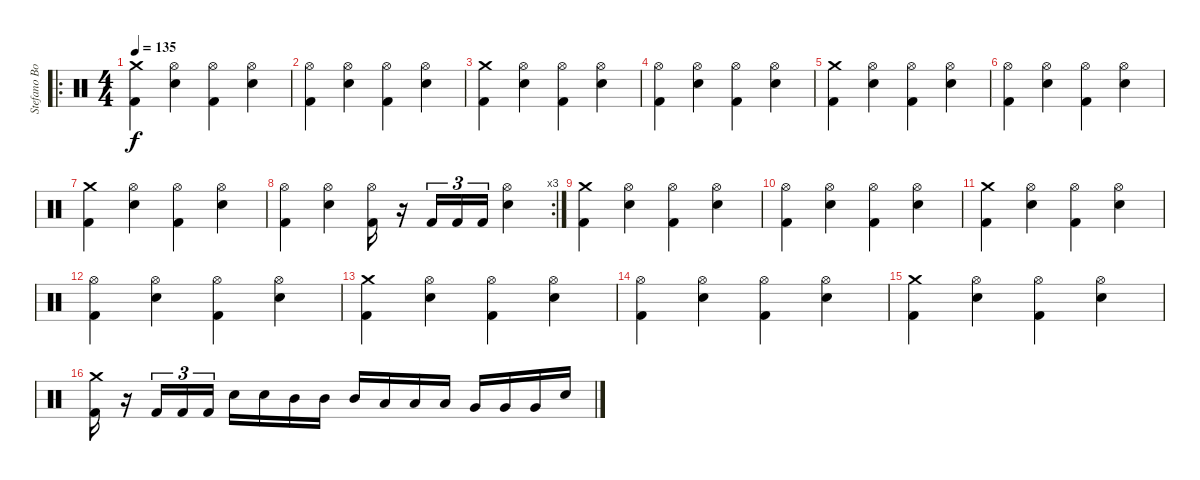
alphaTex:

\track ("Stefano Bonini" "Stefano Bo") {instrument percussion}
\staff {score}
\articulation defaults
\ro
\ts (4 4)
\tempo 135
\clef neutral
\ks c
("Crash medium (hit)" "Kick (hit) 2").4{dy f} ("Hi-Hat (open)" "Electric Snare (hit)").4 ("Hi-Hat (open)" "Kick (hit) 2").4 ("Hi-Hat (open)" "Electric Snare (hit)").4 |
("Hi-Hat (open)" "Kick (hit) 2").4 ("Hi-Hat (open)" "Electric Snare (hit)").4 ("Hi-Hat (open)" "Kick (hit) 2").4 ("Hi-Hat (open)" "Electric Snare (hit)").4 |
("Crash medium (hit)" "Kick (hit) 2").4 ("Hi-Hat (open)" "Electric Snare (hit)").4 ("Hi-Hat (open)" "Kick (hit) 2").4 ("Hi-Hat (open)" "Electric Snare (hit)").4 |
("Hi-Hat (open)" "Kick (hit) 2").4 ("Hi-Hat (open)" "Electric Snare (hit)").4 ("Hi-Hat (open)" "Kick (hit) 2").4 ("Hi-Hat (open)" "Electric Snare (hit)").4 |
("Crash medium (hit)" "Kick (hit) 2").4 ("Hi-Hat (open)" "Electric Snare (hit)").4 ("Hi-Hat (open)" "Kick (hit) 2").4 ("Hi-Hat (open)" "Electric Snare (hit)").4 |
("Hi-Hat (open)" "Kick (hit) 2").4 ("Hi-Hat (open)" "Electric Snare (hit)").4 ("Hi-Hat (open)" "Kick (hit) 2").4 ("Hi-Hat (open)" "Electric Snare (hit)").4 |
("Crash medium (hit)" "Kick (hit) 2").4 ("Hi-Hat (open)" "Electric Snare (hit)").4 ("Hi-Hat (open)" "Kick (hit) 2").4 ("Hi-Hat (open)" "Electric Snare (hit)").4 |
\rc 3
("Hi-Hat (open)" "Kick (hit) 2").4 ("Hi-Hat (open)" "Electric Snare (hit)").4 ("Hi-Hat (open)" "Kick (hit) 2").16 r.16 "Kick (hit) 2".16{tu (3 2)} "Kick (hit) 2".16{tu (3 2)} "Kick (hit) 2".16{tu (3 2)} ("Hi-Hat (open)" "Electric Snare (hit)").4 |
("Crash medium (hit)" "Kick (hit) 2").4 ("Hi-Hat (open)" "Electric Snare (hit)").4 ("Hi-Hat (open)" "Kick (hit) 2").4 ("Hi-Hat (open)" "Electric Snare (hit)").4 |
("Hi-Hat (open)" "Kick (hit) 2").4 ("Hi-Hat (open)" "Electric Snare (hit)").4 ("Hi-Hat (open)" "Kick (hit) 2").4 ("Hi-Hat (open)" "Electric Snare (hit)").4 |
("Crash medium (hit)" "Kick (hit) 2").4 ("Hi-Hat (open)" "Electric Snare (hit)").4 ("Hi-Hat (open)" "Kick (hit) 2").4 ("Hi-Hat (open)" "Electric Snare (hit)").4 |
("Hi-Hat (open)" "Kick (hit) 2").4 ("Hi-Hat (open)" "Electric Snare (hit)").4 ("Hi-Hat (open)" "Kick (hit) 2").4 ("Hi-Hat (open)" "Electric Snare (hit)").4 |
("Crash medium (hit)" "Kick (hit) 2").4 ("Hi-Hat (open)" "Electric Snare (hit)").4 ("Hi-Hat (open)" "Kick (hit) 2").4 ("Hi-Hat (open)" "Electric Snare (hit)").4 |
("Hi-Hat (open)" "Kick (hit) 2").4 ("Hi-Hat (open)" "Electric Snare (hit)").4 ("Hi-Hat (open)" "Kick (hit) 2").4 ("Hi-Hat (open)" "Electric Snare (hit)").4 |
("Crash medium (hit)" "Kick (hit) 2").4 ("Hi-Hat (open)" "Electric Snare (hit)").4 ("Hi-Hat (open)" "Kick (hit) 2").4 ("Hi-Hat (open)" "Electric Snare (hit)").4 |
("Crash medium (hit)" "Kick (hit) 2").16 r.16 "Kick (hit) 2".16{tu (3 2)} "Kick (hit) 2".16{tu (3 2)} "Kick (hit) 2".16{tu (3 2)} "Electric Snare (hit)".16 "Electric Snare (hit)".16 "Mid Tom (hit)".16 "Mid Tom (hit)".16 "Mid Tom (hit)".16 "Low Tom (hit)".16 "Low Tom (hit)".16 "Low Tom (hit)".16 "Very Low Tom (hit)".16 "Very Low Tom (hit)".16 "Very Low Tom (hit)".16 "Electric Snare (hit)".16
